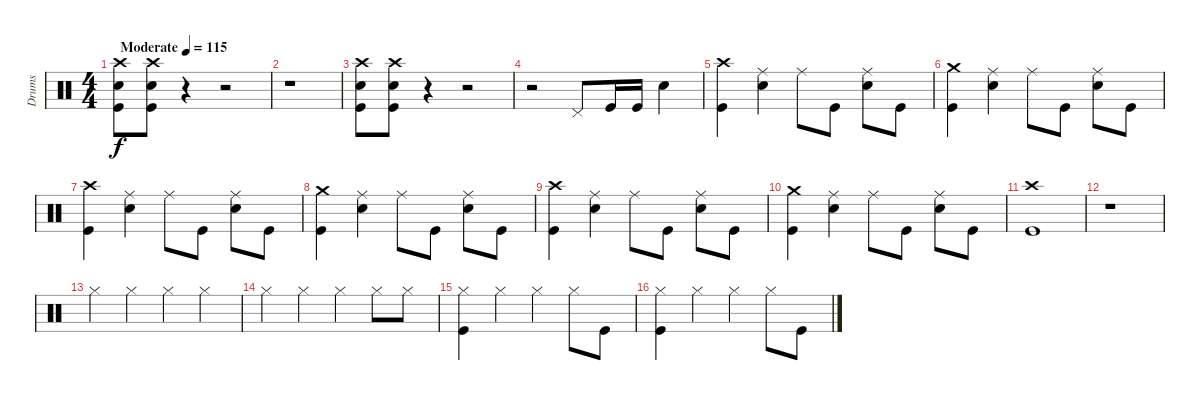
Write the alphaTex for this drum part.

\track ("Drums" "Drums") {instrument percussion}
\staff {score}
\articulation defaults
\ts (4 4)
\tempo (115 "Moderate")
\clef neutral
\ks c
("Crash high (hit)" "Snare (hit) 2" "Kick (hit)").8{dy f} ("Crash high (hit)" "Snare (hit) 2" "Kick (hit)").8 r.4 r.2 |
r.1 |
("Crash high (hit)" "Snare (hit) 2" "Kick (hit)").8 ("Crash high (hit)" "Snare (hit) 2" "Kick (hit)").8 r.4 r.2 |
r.2 "Pedal Hi-Hat (hit)".8 "Kick (hit)".16 "Kick (hit)".16 "Snare (hit) 2".4 |
("Crash high (hit)" "Kick (hit)").4 ("Ride (middle)" "Snare (hit) 2").4 "Ride (middle)".8 "Kick (hit)".8 ("Ride (middle)" "Snare (hit) 2").8 "Kick (hit)".8 |
("Crash medium (hit)" "Kick (hit)").4 ("Ride (middle)" "Snare (hit) 2").4 "Ride (middle)".8 "Kick (hit)".8 ("Ride (middle)" "Snare (hit) 2").8 "Kick (hit)".8 |
("Crash high (hit)" "Kick (hit)").4 ("Ride (middle)" "Snare (hit) 2").4 "Ride (middle)".8 "Kick (hit)".8 ("Ride (middle)" "Snare (hit) 2").8 "Kick (hit)".8 |
("Crash medium (hit)" "Kick (hit)").4 ("Ride (middle)" "Snare (hit) 2").4 "Ride (middle)".8 "Kick (hit)".8 ("Ride (middle)" "Snare (hit) 2").8 "Kick (hit)".8 |
("Crash high (hit)" "Kick (hit)").4 ("Ride (middle)" "Snare (hit) 2").4 "Ride (middle)".8 "Kick (hit)".8 ("Ride (middle)" "Snare (hit) 2").8 "Kick (hit)".8 |
("Crash medium (hit)" "Kick (hit)").4 ("Ride (middle)" "Snare (hit) 2").4 "Ride (middle)".8 "Kick (hit)".8 ("Ride (middle)" "Snare (hit) 2").8 "Kick (hit)".8 |
("Crash high (hit)" "Kick (hit)").1 |
r.1 |
"Hi-Hat (closed)".4 "Hi-Hat (closed)".4 "Hi-Hat (closed)".4 "Hi-Hat (closed)".4 |
"Hi-Hat (closed)".4 "Hi-Hat (closed)".4 "Hi-Hat (closed)".4 "Hi-Hat (closed)".8 "Hi-Hat (closed)".8 |
("Hi-Hat (closed)" "Kick (hit)").4 "Hi-Hat (closed)".4 "Hi-Hat (closed)".4 "Hi-Hat (closed)".8 "Kick (hit)".8 |
("Hi-Hat (closed)" "Kick (hit)").4 "Hi-Hat (closed)".4 "Hi-Hat (closed)".4 "Hi-Hat (closed)".8 "Kick (hit)".8
